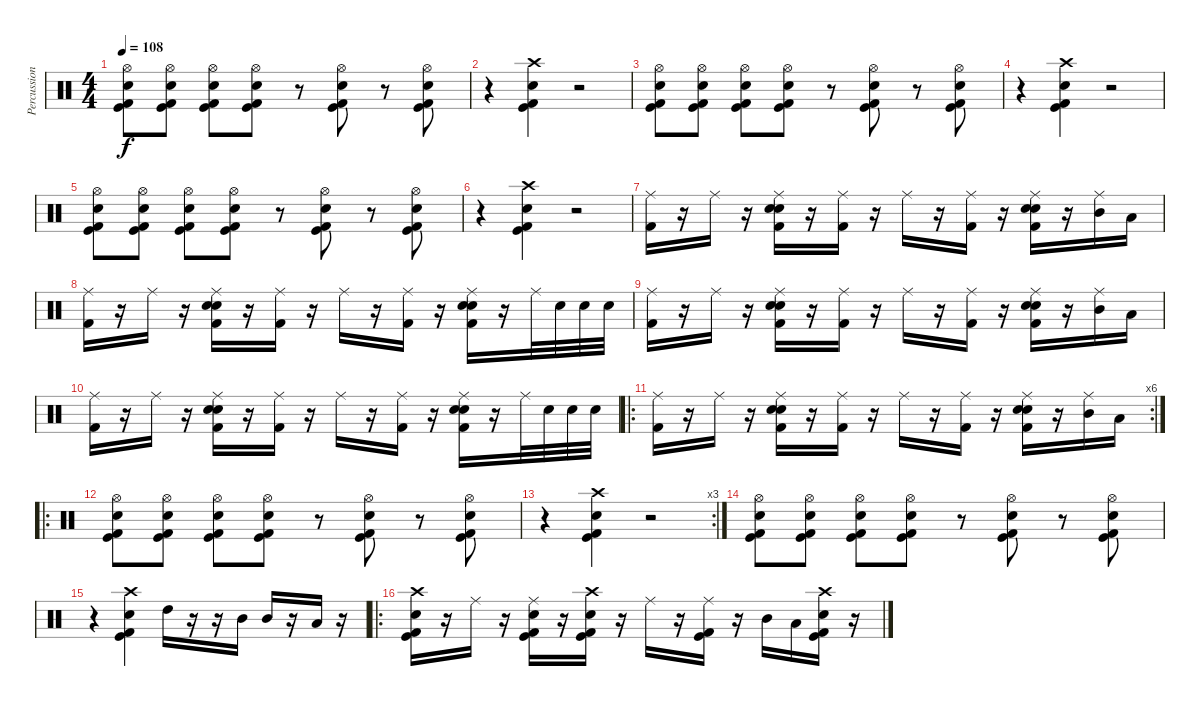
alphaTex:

\track ("Percussions" "Percussion") {instrument percussion}
\staff {score}
\articulation defaults
\ts (4 4)
\tempo 108
\clef neutral
\ks c
("Kick (hit)" "Kick (hit) 2" "Snare (hit) 2" "Hi-Hat (open)").8{dy f} ("Kick (hit)" "Kick (hit) 2" "Snare (hit) 2" "Hi-Hat (open)").8 ("Kick (hit)" "Kick (hit) 2" "Snare (hit) 2" "Hi-Hat (open)").8 ("Kick (hit)" "Kick (hit) 2" "Snare (hit) 2" "Hi-Hat (open)").8 r.8 ("Kick (hit)" "Kick (hit) 2" "Snare (hit) 2" "Hi-Hat (open)").8 r.8 ("Kick (hit)" "Kick (hit) 2" "Snare (hit) 2" "Hi-Hat (open)").8 |
r.4 ("Kick (hit)" "Kick (hit) 2" "Snare (hit) 2" "Crash high (hit)").4 r.2 |
("Kick (hit)" "Kick (hit) 2" "Snare (hit) 2" "Hi-Hat (open)").8 ("Kick (hit)" "Kick (hit) 2" "Snare (hit) 2" "Hi-Hat (open)").8 ("Kick (hit)" "Kick (hit) 2" "Snare (hit) 2" "Hi-Hat (open)").8 ("Kick (hit)" "Kick (hit) 2" "Snare (hit) 2" "Hi-Hat (open)").8 r.8 ("Kick (hit)" "Kick (hit) 2" "Snare (hit) 2" "Hi-Hat (open)").8 r.8 ("Kick (hit)" "Kick (hit) 2" "Snare (hit) 2" "Hi-Hat (open)").8 |
r.4 ("Kick (hit)" "Kick (hit) 2" "Snare (hit) 2" "Crash high (hit)").4 r.2 |
("Kick (hit)" "Kick (hit) 2" "Snare (hit) 2" "Hi-Hat (open)").8 ("Kick (hit)" "Kick (hit) 2" "Snare (hit) 2" "Hi-Hat (open)").8 ("Kick (hit)" "Kick (hit) 2" "Snare (hit) 2" "Hi-Hat (open)").8 ("Kick (hit)" "Kick (hit) 2" "Snare (hit) 2" "Hi-Hat (open)").8 r.8 ("Kick (hit)" "Kick (hit) 2" "Snare (hit) 2" "Hi-Hat (open)").8 r.8 ("Kick (hit)" "Kick (hit) 2" "Snare (hit) 2" "Hi-Hat (open)").8 |
r.4 ("Kick (hit)" "Kick (hit) 2" "Snare (hit) 2" "Crash high (hit)").4 r.2 |
("Ride (middle)" "Kick (hit) 2").16 r.16 "Ride (middle)".16 r.16 ("Ride (middle)" "Kick (hit) 2" "Snare (hit) 2" "Electric Snare (hit)").16 r.16 ("Ride (middle)" "Kick (hit) 2").16 r.16 "Ride (middle)".16 r.16 ("Ride (middle)" "Kick (hit) 2").16 r.16 ("Ride (middle)" "Kick (hit) 2" "Snare (hit) 2" "Electric Snare (hit)").16 r.16 ("Ride (middle)" "Mid Tom (hit)").16 "Low Tom (hit)".16 |
("Ride (middle)" "Kick (hit) 2").16 r.16 "Ride (middle)".16 r.16 ("Ride (middle)" "Kick (hit) 2" "Snare (hit) 2" "Electric Snare (hit)").16 r.16 ("Ride (middle)" "Kick (hit) 2").16 r.16 "Ride (middle)".16 r.16 ("Ride (middle)" "Kick (hit) 2").16 r.16 ("Ride (middle)" "Kick (hit) 2" "Snare (hit) 2" "Electric Snare (hit)").16 r.16 "Ride (middle)".32 "Snare (hit) 2".32 "Snare (hit) 2".32 "Snare (hit) 2".32 |
("Ride (middle)" "Kick (hit) 2").16 r.16 "Ride (middle)".16 r.16 ("Ride (middle)" "Kick (hit) 2" "Snare (hit) 2" "Electric Snare (hit)").16 r.16 ("Ride (middle)" "Kick (hit) 2").16 r.16 "Ride (middle)".16 r.16 ("Ride (middle)" "Kick (hit) 2").16 r.16 ("Ride (middle)" "Kick (hit) 2" "Snare (hit) 2" "Electric Snare (hit)").16 r.16 ("Ride (middle)" "Mid Tom (hit)").16 "Low Tom (hit)".16 |
("Ride (middle)" "Kick (hit) 2").16 r.16 "Ride (middle)".16 r.16 ("Ride (middle)" "Kick (hit) 2" "Snare (hit) 2" "Electric Snare (hit)").16 r.16 ("Ride (middle)" "Kick (hit) 2").16 r.16 "Ride (middle)".16 r.16 ("Ride (middle)" "Kick (hit) 2").16 r.16 ("Ride (middle)" "Kick (hit) 2" "Snare (hit) 2" "Electric Snare (hit)").16 r.16 "Ride (middle)".32 "Snare (hit) 2".32 "Snare (hit) 2".32 "Snare (hit) 2".32 |
\ro
\rc 6
("Ride (middle)" "Kick (hit) 2").16 r.16 "Ride (middle)".16 r.16 ("Ride (middle)" "Kick (hit) 2" "Snare (hit) 2" "Electric Snare (hit)").16 r.16 ("Ride (middle)" "Kick (hit) 2").16 r.16 "Ride (middle)".16 r.16 ("Ride (middle)" "Kick (hit) 2").16 r.16 ("Ride (middle)" "Kick (hit) 2" "Snare (hit) 2" "Electric Snare (hit)").16 r.16 ("Ride (middle)" "Mid Tom (hit)").16 "Low Tom (hit)".16 |
\ro
("Kick (hit)" "Kick (hit) 2" "Snare (hit) 2" "Hi-Hat (open)").8 ("Kick (hit)" "Kick (hit) 2" "Snare (hit) 2" "Hi-Hat (open)").8 ("Kick (hit)" "Kick (hit) 2" "Snare (hit) 2" "Hi-Hat (open)").8 ("Kick (hit)" "Kick (hit) 2" "Snare (hit) 2" "Hi-Hat (open)").8 r.8 ("Kick (hit)" "Kick (hit) 2" "Snare (hit) 2" "Hi-Hat (open)").8 r.8 ("Kick (hit)" "Kick (hit) 2" "Snare (hit) 2" "Hi-Hat (open)").8 |
\rc 3
r.4 ("Kick (hit)" "Kick (hit) 2" "Snare (hit) 2" "Crash high (hit)").4 r.2 |
("Kick (hit)" "Kick (hit) 2" "Snare (hit) 2" "Hi-Hat (open)").8 ("Kick (hit)" "Kick (hit) 2" "Snare (hit) 2" "Hi-Hat (open)").8 ("Kick (hit)" "Kick (hit) 2" "Snare (hit) 2" "Hi-Hat (open)").8 ("Kick (hit)" "Kick (hit) 2" "Snare (hit) 2" "Hi-Hat (open)").8 r.8 ("Kick (hit)" "Kick (hit) 2" "Snare (hit) 2" "Hi-Hat (open)").8 r.8 ("Kick (hit)" "Kick (hit) 2" "Snare (hit) 2" "Hi-Hat (open)").8 |
r.4 ("Kick (hit)" "Kick (hit) 2" "Snare (hit) 2" "Crash high (hit)").4 "High Tom (hit)".16 r.16 r.16 "Mid Tom (hit)".16 "Mid Tom (hit)".16 r.16 "Low Tom (hit)".16 r.16 |
\ro
("Kick (hit) 2" "Snare (hit) 2" "Kick (hit)" "Crash high (hit)").16 r.16 "Ride (middle)".16 r.16 ("Kick (hit) 2" "Snare (hit) 2" "Ride (middle)" "Kick (hit)").16 r.16 ("Kick (hit) 2" "Snare (hit) 2" "Kick (hit)" "Crash high (hit)").16 r.16 "Ride (middle)".16 r.16 ("Kick (hit) 2" "Kick (hit)" "Ride (middle)").16 r.16 "Mid Tom (hit)".16 "Low Tom (hit)".16 ("Kick (hit) 2" "Snare (hit) 2" "Kick (hit)" "Crash high (hit)").16 r.16
